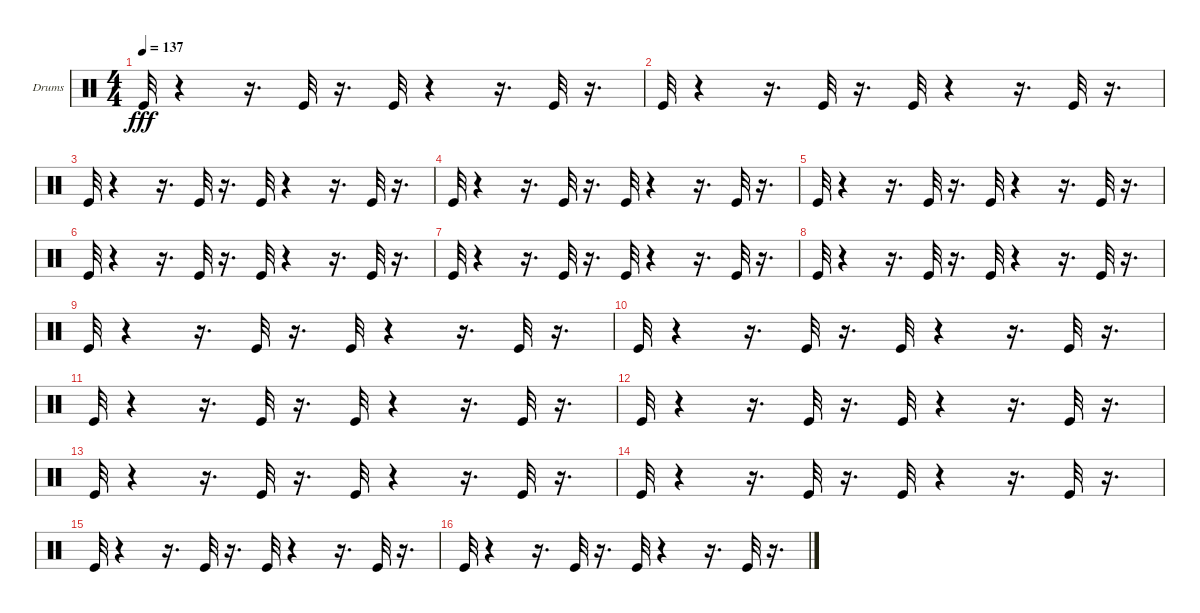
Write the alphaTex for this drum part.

\bracketExtendMode groupsimilarinstruments
\firstSystemTrackNameOrientation horizontal
\otherSystemsTrackNameOrientation horizontal
\track ("Drumkit" "Drums") {instrument percussion}
\staff {score}
\articulation defaults
\ts (4 4)
\tempo 137
\clef neutral
\ks c "Kick (hit)".32{dy fff}
r.4 r.16{d} "Kick (hit)".32 r.16{d} "Kick (hit)".32 r.4 r.16{d} "Kick (hit)".32 r.16{d} |
"Kick (hit)".32 r.4 r.16{d} "Kick (hit)".32 r.16{d} "Kick (hit)".32 r.4 r.16{d} "Kick (hit)".32 r.16{d} |
"Kick (hit)".32 r.4 r.16{d} "Kick (hit)".32 r.16{d} "Kick (hit)".32 r.4 r.16{d} "Kick (hit)".32 r.16{d} |
"Kick (hit)".32 r.4 r.16{d} "Kick (hit)".32 r.16{d} "Kick (hit)".32 r.4 r.16{d} "Kick (hit)".32 r.16{d} |
"Kick (hit)".32 r.4 r.16{d} "Kick (hit)".32 r.16{d} "Kick (hit)".32 r.4 r.16{d} "Kick (hit)".32 r.16{d} |
"Kick (hit)".32 r.4 r.16{d} "Kick (hit)".32 r.16{d} "Kick (hit)".32 r.4 r.16{d} "Kick (hit)".32 r.16{d} |
"Kick (hit)".32 r.4 r.16{d} "Kick (hit)".32 r.16{d} "Kick (hit)".32 r.4 r.16{d} "Kick (hit)".32 r.16{d} |
"Kick (hit)".32 r.4 r.16{d} "Kick (hit)".32 r.16{d} "Kick (hit)".32 r.4 r.16{d} "Kick (hit)".32 r.16{d} |
"Kick (hit)".32 r.4 r.16{d} "Kick (hit)".32 r.16{d} "Kick (hit)".32 r.4 r.16{d} "Kick (hit)".32 r.16{d} |
"Kick (hit)".32 r.4 r.16{d} "Kick (hit)".32 r.16{d} "Kick (hit)".32 r.4 r.16{d} "Kick (hit)".32 r.16{d} |
"Kick (hit)".32 r.4 r.16{d} "Kick (hit)".32 r.16{d} "Kick (hit)".32 r.4 r.16{d} "Kick (hit)".32 r.16{d} |
"Kick (hit)".32 r.4 r.16{d} "Kick (hit)".32 r.16{d} "Kick (hit)".32 r.4 r.16{d} "Kick (hit)".32 r.16{d} |
"Kick (hit)".32 r.4 r.16{d} "Kick (hit)".32 r.16{d} "Kick (hit)".32 r.4 r.16{d} "Kick (hit)".32 r.16{d} |
"Kick (hit)".32 r.4 r.16{d} "Kick (hit)".32 r.16{d} "Kick (hit)".32 r.4 r.16{d} "Kick (hit)".32 r.16{d} |
"Kick (hit)".32 r.4 r.16{d} "Kick (hit)".32 r.16{d} "Kick (hit)".32 r.4 r.16{d} "Kick (hit)".32 r.16{d} |
"Kick (hit)".32 r.4 r.16{d} "Kick (hit)".32 r.16{d} "Kick (hit)".32 r.4 r.16{d} "Kick (hit)".32 r.16{d}
